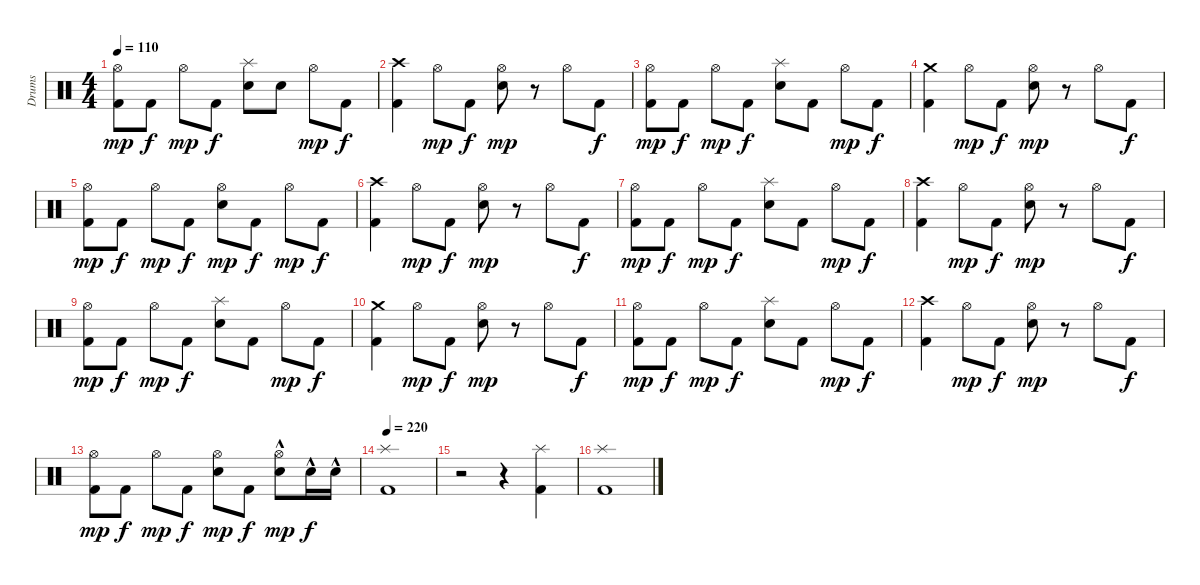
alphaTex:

\track ("Drums" "Drums") {instrument percussion}
\staff {score}
\articulation defaults
\ts (4 4)
\tempo 110
\clef neutral
\ks c
("Hi-Hat (open)" "Kick (hit) 2").8{dy mp} "Kick (hit) 2".8{dy f} "Hi-Hat (open)".8{dy mp} "Kick (hit) 2".8{dy f} ("Splash (hit)" "Snare (hit) 2").8 "Snare (hit) 2".8 "Hi-Hat (open)".8{dy mp} "Kick (hit) 2".8{dy f} |
("Crash high (hit)" "Kick (hit) 2").4 "Hi-Hat (open)".8{dy mp} "Kick (hit) 2".8{dy f} ("Hi-Hat (open)" "Snare (hit) 2").8{dy mp} r.8 "Hi-Hat (open)".8 "Kick (hit) 2".8{dy f} |
("Hi-Hat (open)" "Kick (hit) 2").8{dy mp} "Kick (hit) 2".8{dy f} "Hi-Hat (open)".8{dy mp} "Kick (hit) 2".8{dy f} ("Splash (hit)" "Snare (hit) 2").8 "Kick (hit) 2".8 "Hi-Hat (open)".8{dy mp} "Kick (hit) 2".8{dy f} |
("Crash medium (hit)" "Kick (hit) 2").4 "Hi-Hat (open)".8{dy mp} "Kick (hit) 2".8{dy f} ("Hi-Hat (open)" "Snare (hit) 2").8{dy mp} r.8 "Hi-Hat (open)".8 "Kick (hit) 2".8{dy f} |
("Hi-Hat (open)" "Kick (hit) 2").8{dy mp} "Kick (hit) 2".8{dy f} "Hi-Hat (open)".8{dy mp} "Kick (hit) 2".8{dy f} ("Hi-Hat (open)" "Snare (hit) 2").8{dy mp} "Kick (hit) 2".8{dy f} "Hi-Hat (open)".8{dy mp} "Kick (hit) 2".8{dy f} |
("Crash high (hit)" "Kick (hit) 2").4 "Hi-Hat (open)".8{dy mp} "Kick (hit) 2".8{dy f} ("Hi-Hat (open)" "Snare (hit) 2").8{dy mp} r.8 "Hi-Hat (open)".8 "Kick (hit) 2".8{dy f} |
("Hi-Hat (open)" "Kick (hit) 2").8{dy mp} "Kick (hit) 2".8{dy f} "Hi-Hat (open)".8{dy mp} "Kick (hit) 2".8{dy f} ("Splash (hit)" "Snare (hit) 2").8 "Kick (hit) 2".8 "Hi-Hat (open)".8{dy mp} "Kick (hit) 2".8{dy f} |
("Crash high (hit)" "Kick (hit) 2").4 "Hi-Hat (open)".8{dy mp} "Kick (hit) 2".8{dy f} ("Hi-Hat (open)" "Snare (hit) 2").8{dy mp} r.8 "Hi-Hat (open)".8 "Kick (hit) 2".8{dy f} |
("Hi-Hat (open)" "Kick (hit) 2").8{dy mp} "Kick (hit) 2".8{dy f} "Hi-Hat (open)".8{dy mp} "Kick (hit) 2".8{dy f} ("Splash (hit)" "Snare (hit) 2").8 "Kick (hit) 2".8 "Hi-Hat (open)".8{dy mp} "Kick (hit) 2".8{dy f} |
("Crash medium (hit)" "Kick (hit) 2").4 "Hi-Hat (open)".8{dy mp} "Kick (hit) 2".8{dy f} ("Hi-Hat (open)" "Snare (hit) 2").8{dy mp} r.8 "Hi-Hat (open)".8 "Kick (hit) 2".8{dy f} |
("Hi-Hat (open)" "Kick (hit) 2").8{dy mp} "Kick (hit) 2".8{dy f} "Hi-Hat (open)".8{dy mp} "Kick (hit) 2".8{dy f} ("Splash (hit)" "Snare (hit) 2").8 "Kick (hit) 2".8 "Hi-Hat (open)".8{dy mp} "Kick (hit) 2".8{dy f} |
("Crash high (hit)" "Kick (hit) 2").4 "Hi-Hat (open)".8{dy mp} "Kick (hit) 2".8{dy f} ("Hi-Hat (open)" "Snare (hit) 2").8{dy mp} r.8 "Hi-Hat (open)".8 "Kick (hit) 2".8{dy f} |
("Hi-Hat (open)" "Kick (hit) 2").8{dy mp} "Kick (hit) 2".8{dy f} "Hi-Hat (open)".8{dy mp} "Kick (hit) 2".8{dy f} ("Hi-Hat (open)" "Snare (hit) 2").8{dy mp} "Kick (hit) 2".8{dy f} ("Hi-Hat (open)" "Snare (hit) 2"{hac}).8{dy mp} "Snare (hit) 2"{hac}.16{dy f} "Snare (hit) 2"{hac}.16 |
\tempo 220
("Splash (hit)" "Kick (hit) 2").1 |
r.2 r.4 ("Splash (hit)" "Kick (hit) 2").4 |
("Splash (hit)" "Kick (hit) 2").1
